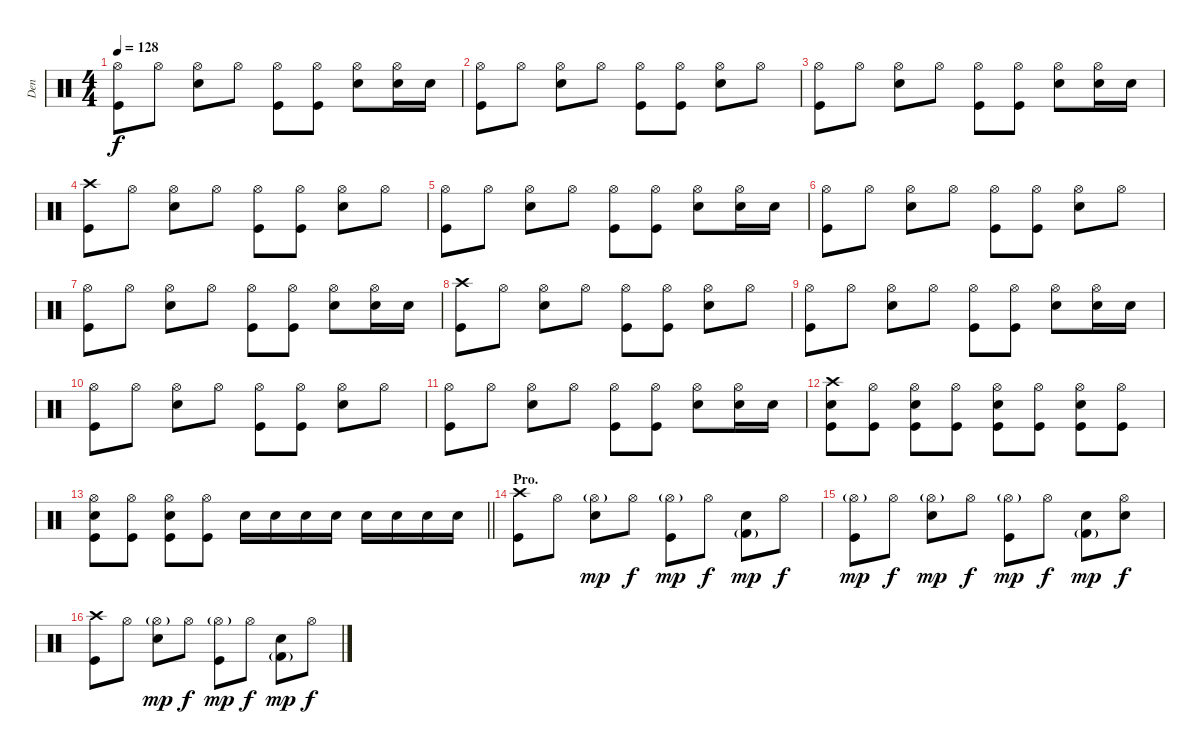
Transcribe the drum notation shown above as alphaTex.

\track ("Den" "Den") {instrument percussion}
\staff
\articulation defaults
\ts (4 4)
\tempo 128
\clef neutral
\ks c
("Hi-Hat (open)" "Kick (hit)").8{dy f} "Hi-Hat (open)".8 ("Hi-Hat (open)" "Snare (hit) 2").8 "Hi-Hat (open)".8 ("Hi-Hat (open)" "Kick (hit)").8 ("Hi-Hat (open)" "Kick (hit)").8 ("Hi-Hat (open)" "Snare (hit) 2").8 ("Hi-Hat (open)" "Snare (hit) 2").16 "Snare (hit) 2".16 |
("Hi-Hat (open)" "Kick (hit)").8 "Hi-Hat (open)".8 ("Hi-Hat (open)" "Snare (hit) 2").8 "Hi-Hat (open)".8 ("Hi-Hat (open)" "Kick (hit)").8 ("Hi-Hat (open)" "Kick (hit)").8 ("Hi-Hat (open)" "Snare (hit) 2").8 "Hi-Hat (open)".8 |
("Hi-Hat (open)" "Kick (hit)").8 "Hi-Hat (open)".8 ("Hi-Hat (open)" "Snare (hit) 2").8 "Hi-Hat (open)".8 ("Hi-Hat (open)" "Kick (hit)").8 ("Hi-Hat (open)" "Kick (hit)").8 ("Hi-Hat (open)" "Snare (hit) 2").8 ("Hi-Hat (open)" "Snare (hit) 2").16 "Snare (hit) 2".16 |
("Crash high (hit)" "Kick (hit)").8 "Hi-Hat (open)".8 ("Hi-Hat (open)" "Snare (hit) 2").8 "Hi-Hat (open)".8 ("Hi-Hat (open)" "Kick (hit)").8 ("Hi-Hat (open)" "Kick (hit)").8 ("Hi-Hat (open)" "Snare (hit) 2").8 "Hi-Hat (open)".8 |
("Hi-Hat (open)" "Kick (hit)").8 "Hi-Hat (open)".8 ("Hi-Hat (open)" "Snare (hit) 2").8 "Hi-Hat (open)".8 ("Hi-Hat (open)" "Kick (hit)").8 ("Hi-Hat (open)" "Kick (hit)").8 ("Hi-Hat (open)" "Snare (hit) 2").8 ("Hi-Hat (open)" "Snare (hit) 2").16 "Snare (hit) 2".16 |
("Hi-Hat (open)" "Kick (hit)").8 "Hi-Hat (open)".8 ("Hi-Hat (open)" "Snare (hit) 2").8 "Hi-Hat (open)".8 ("Hi-Hat (open)" "Kick (hit)").8 ("Hi-Hat (open)" "Kick (hit)").8 ("Hi-Hat (open)" "Snare (hit) 2").8 "Hi-Hat (open)".8 |
("Hi-Hat (open)" "Kick (hit)").8 "Hi-Hat (open)".8 ("Hi-Hat (open)" "Snare (hit) 2").8 "Hi-Hat (open)".8 ("Hi-Hat (open)" "Kick (hit)").8 ("Hi-Hat (open)" "Kick (hit)").8 ("Hi-Hat (open)" "Snare (hit) 2").8 ("Hi-Hat (open)" "Snare (hit) 2").16 "Snare (hit) 2".16 |
("Crash high (hit)" "Kick (hit)").8 "Hi-Hat (open)".8 ("Hi-Hat (open)" "Snare (hit) 2").8 "Hi-Hat (open)".8 ("Hi-Hat (open)" "Kick (hit)").8 ("Hi-Hat (open)" "Kick (hit)").8 ("Hi-Hat (open)" "Snare (hit) 2").8 "Hi-Hat (open)".8 |
("Hi-Hat (open)" "Kick (hit)").8 "Hi-Hat (open)".8 ("Hi-Hat (open)" "Snare (hit) 2").8 "Hi-Hat (open)".8 ("Hi-Hat (open)" "Kick (hit)").8 ("Hi-Hat (open)" "Kick (hit)").8 ("Hi-Hat (open)" "Snare (hit) 2").8 ("Hi-Hat (open)" "Snare (hit) 2").16 "Snare (hit) 2".16 |
("Hi-Hat (open)" "Kick (hit)").8 "Hi-Hat (open)".8 ("Hi-Hat (open)" "Snare (hit) 2").8 "Hi-Hat (open)".8 ("Hi-Hat (open)" "Kick (hit)").8 ("Hi-Hat (open)" "Kick (hit)").8 ("Hi-Hat (open)" "Snare (hit) 2").8 "Hi-Hat (open)".8 |
("Hi-Hat (open)" "Kick (hit)").8 "Hi-Hat (open)".8 ("Hi-Hat (open)" "Snare (hit) 2").8 "Hi-Hat (open)".8 ("Hi-Hat (open)" "Kick (hit)").8 ("Hi-Hat (open)" "Kick (hit)").8 ("Hi-Hat (open)" "Snare (hit) 2").8 ("Hi-Hat (open)" "Snare (hit) 2").16 "Snare (hit) 2".16 |
("Crash high (hit)" "Snare (hit) 2" "Kick (hit)").8 ("Hi-Hat (open)" "Kick (hit)").8 ("Hi-Hat (open)" "Snare (hit) 2" "Kick (hit)").8 ("Hi-Hat (open)" "Kick (hit)").8 ("Hi-Hat (open)" "Snare (hit) 2" "Kick (hit)").8 ("Hi-Hat (open)" "Kick (hit)").8 ("Hi-Hat (open)" "Snare (hit) 2" "Kick (hit)").8 ("Hi-Hat (open)" "Kick (hit)").8 |
\barLineRight lightlight
("Hi-Hat (open)" "Snare (hit) 2" "Kick (hit)").8 ("Hi-Hat (open)" "Kick (hit)").8 ("Hi-Hat (open)" "Snare (hit) 2" "Kick (hit)").8 ("Hi-Hat (open)" "Kick (hit)").8 "Snare (hit) 2".16 "Snare (hit) 2".16 "Snare (hit) 2".16 "Snare (hit) 2".16 "Snare (hit) 2".16 "Snare (hit) 2".16 "Snare (hit) 2".16 "Snare (hit) 2".16 |
\section ("" "Pro.")
("Crash high (hit)" "Kick (hit)").8 "Hi-Hat (open)".8 ("Hi-Hat (open)"{g} "Snare (hit) 2").8{dy mp} "Hi-Hat (open)".8{dy f} ("Hi-Hat (open)"{g} "Kick (hit)").8{dy mp} "Hi-Hat (open)".8{dy f} ("Kick (hit) 2"{g} "Snare (hit) 2").8{dy mp} "Hi-Hat (open)".8{dy f} |
("Hi-Hat (open)"{g} "Kick (hit)").8{dy mp} "Hi-Hat (open)".8{dy f} ("Hi-Hat (open)"{g} "Snare (hit) 2").8{dy mp} "Hi-Hat (open)".8{dy f} ("Hi-Hat (open)"{g} "Kick (hit)").8{dy mp} "Hi-Hat (open)".8{dy f} ("Kick (hit) 2"{g} "Snare (hit) 2").8{dy mp} ("Hi-Hat (open)" "Snare (hit) 2").8{dy f} |
("Crash high (hit)" "Kick (hit)").8 "Hi-Hat (open)".8 ("Hi-Hat (open)"{g} "Snare (hit) 2").8{dy mp} "Hi-Hat (open)".8{dy f} ("Hi-Hat (open)"{g} "Kick (hit)").8{dy mp} "Hi-Hat (open)".8{dy f} ("Kick (hit) 2"{g} "Snare (hit) 2").8{dy mp} "Hi-Hat (open)".8{dy f}
